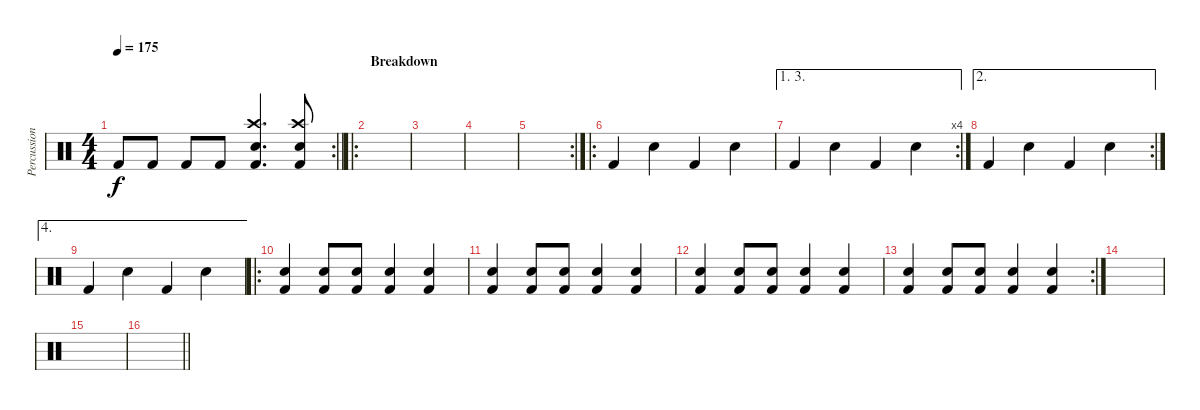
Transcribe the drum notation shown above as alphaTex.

\track ("Percussion" "Percussion") {instrument percussion}
\staff {score}
\articulation defaults
\rc 2
\ts (4 4)
\tempo 175
\clef neutral
\barLineRight lightlight
\ks c "Kick (hit) 2".8{dy f} "Kick (hit) 2".8 "Kick (hit) 2".8 "Kick (hit) 2".8
("Crash high (hit)" "Snare (hit) 2" "Kick (hit) 2").4{d} ("Crash high (hit)" "Snare (hit) 2" "Kick (hit) 2").8 |
\ro
\section ("" "Breakdown")
|
|
|
\rc 2
|
\ro "Kick (hit) 2".4 "Snare (hit) 2".4 "Kick (hit) 2".4 "Snare (hit) 2".4
|
\ae (1 3)
\rc 4 "Kick (hit) 2".4 "Snare (hit) 2".4 "Kick (hit) 2".4 "Snare (hit) 2".4
|
\ae 2
\rc 2 "Kick (hit) 2".4 "Snare (hit) 2".4 "Kick (hit) 2".4 "Snare (hit) 2".4
|
\ae 4 "Kick (hit) 2".4 "Snare (hit) 2".4 "Kick (hit) 2".4 "Snare (hit) 2".4
|
\ro
("Snare (hit) 2" "Kick (hit) 2").4 ("Snare (hit) 2" "Kick (hit) 2").8 ("Snare (hit) 2" "Kick (hit) 2").8 ("Snare (hit) 2" "Kick (hit) 2").4 ("Snare (hit) 2" "Kick (hit) 2").4 |
("Snare (hit) 2" "Kick (hit) 2").4 ("Snare (hit) 2" "Kick (hit) 2").8 ("Snare (hit) 2" "Kick (hit) 2").8 ("Snare (hit) 2" "Kick (hit) 2").4 ("Snare (hit) 2" "Kick (hit) 2").4 |
("Snare (hit) 2" "Kick (hit) 2").4 ("Snare (hit) 2" "Kick (hit) 2").8 ("Snare (hit) 2" "Kick (hit) 2").8 ("Snare (hit) 2" "Kick (hit) 2").4 ("Snare (hit) 2" "Kick (hit) 2").4 |
\rc 2
("Snare (hit) 2" "Kick (hit) 2").4 ("Snare (hit) 2" "Kick (hit) 2").8 ("Snare (hit) 2" "Kick (hit) 2").8 ("Snare (hit) 2" "Kick (hit) 2").4 ("Snare (hit) 2" "Kick (hit) 2").4 |
|
|
\barLineRight lightlight
